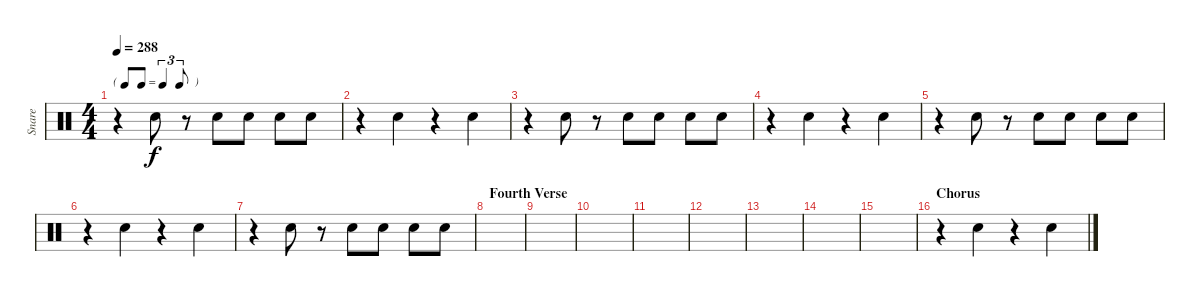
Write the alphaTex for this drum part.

\track ("Snare" "Snare") {instrument percussion}
\staff {score}
\articulation defaults
\ts (4 4)
\tf triplet8th
\tempo 288
\clef neutral
\ks c
r.4{dy f} "Snare (hit) 2".8 r.8 "Snare (hit) 2".8 "Snare (hit) 2".8 "Snare (hit) 2".8 "Snare (hit) 2".8 |
r.4 "Snare (hit) 2".4 r.4 "Snare (hit) 2".4 |
r.4 "Snare (hit) 2".8 r.8 "Snare (hit) 2".8 "Snare (hit) 2".8 "Snare (hit) 2".8 "Snare (hit) 2".8 |
r.4 "Snare (hit) 2".4 r.4 "Snare (hit) 2".4 |
r.4 "Snare (hit) 2".8 r.8 "Snare (hit) 2".8 "Snare (hit) 2".8 "Snare (hit) 2".8 "Snare (hit) 2".8 |
r.4 "Snare (hit) 2".4 r.4 "Snare (hit) 2".4 |
r.4 "Snare (hit) 2".8 r.8 "Snare (hit) 2".8 "Snare (hit) 2".8 "Snare (hit) 2".8 "Snare (hit) 2".8 |
\section ("" "Fourth Verse")
|
|
|
|
|
|
|
|
\section ("" "Chorus")
r.4 "Snare (hit) 2".4 r.4 "Snare (hit) 2".4
